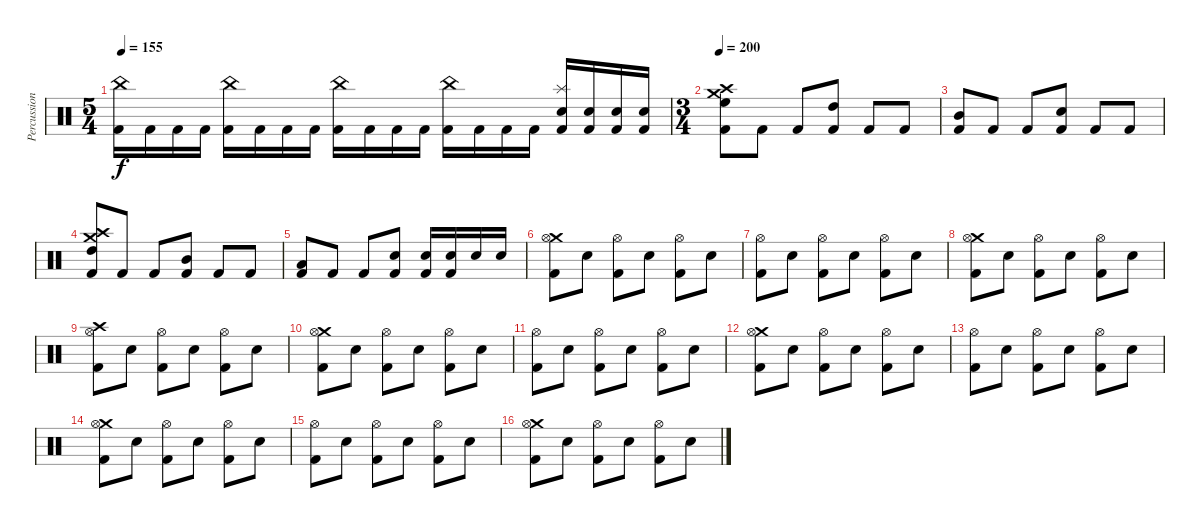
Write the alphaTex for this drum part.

\track ("Percussion" "Percussion") {instrument percussion}
\staff {score}
\articulation defaults
\ts (5 4)
\tempo 155
\clef neutral
\ks c
("China (hit)" "Kick (hit) 2").16{dy f} "Kick (hit) 2".16 "Kick (hit) 2".16 "Kick (hit) 2".16 ("China (hit)" "Kick (hit) 2").16 "Kick (hit) 2".16 "Kick (hit) 2".16 "Kick (hit) 2".16 ("China (hit)" "Kick (hit) 2").16 "Kick (hit) 2".16 "Kick (hit) 2".16 "Kick (hit) 2".16 ("China (hit)" "Kick (hit) 2").16 "Kick (hit) 2".16 "Kick (hit) 2".16 "Kick (hit) 2".16 ("Splash (hit)" "Snare (hit) 2" "Kick (hit) 2").16 ("Snare (hit) 2" "Kick (hit) 2").16 ("Snare (hit) 2" "Kick (hit) 2").16 ("Snare (hit) 2" "Kick (hit) 2").16 |
\ts (3 4)
\tempo 200
("Crash medium (hit)" "Crash high (hit)" "High Floor Tom (hit)" "Kick (hit) 2").8 "Kick (hit) 2".8 "Kick (hit) 2".8 ("High Tom (hit)" "Kick (hit) 2").8 "Kick (hit) 2".8 "Kick (hit) 2".8 |
("Mid Tom (hit)" "Kick (hit) 2").8 "Kick (hit) 2".8 "Kick (hit) 2".8 ("Snare (hit) 2" "Kick (hit) 2").8 "Kick (hit) 2".8 "Kick (hit) 2".8 |
("Crash medium (hit)" "Crash high (hit)" "High Tom (hit)" "Kick (hit) 2").8 "Kick (hit) 2".8 "Kick (hit) 2".8 ("Mid Tom (hit)" "Kick (hit) 2").8 "Kick (hit) 2".8 "Kick (hit) 2".8 |
("Low Tom (hit)" "Kick (hit) 2").8 "Kick (hit) 2".8 "Kick (hit) 2".8 ("Snare (hit) 2" "Kick (hit) 2").8 ("Snare (hit) 2" "Kick (hit) 2").16 ("Snare (hit) 2" "Kick (hit) 2").16 "Snare (hit) 2".16 "Snare (hit) 2".16 |
("Crash medium (hit)" "Hi-Hat (open)" "Kick (hit) 2").8 "Snare (hit) 2".8 ("Hi-Hat (open)" "Kick (hit) 2").8 "Snare (hit) 2".8 ("Hi-Hat (open)" "Kick (hit) 2").8 "Snare (hit) 2".8 |
("Hi-Hat (open)" "Kick (hit) 2").8 "Snare (hit) 2".8 ("Hi-Hat (open)" "Kick (hit) 2").8 "Snare (hit) 2".8 ("Hi-Hat (open)" "Kick (hit) 2").8 "Snare (hit) 2".8 |
("Crash medium (hit)" "Hi-Hat (open)" "Kick (hit) 2").8 "Snare (hit) 2".8 ("Hi-Hat (open)" "Kick (hit) 2").8 "Snare (hit) 2".8 ("Hi-Hat (open)" "Kick (hit) 2").8 "Snare (hit) 2".8 |
("Crash high (hit)" "Hi-Hat (open)" "Kick (hit) 2").8 "Snare (hit) 2".8 ("Hi-Hat (open)" "Kick (hit) 2").8 "Snare (hit) 2".8 ("Hi-Hat (open)" "Kick (hit) 2").8 "Snare (hit) 2".8 |
("Crash medium (hit)" "Hi-Hat (open)" "Kick (hit) 2").8 "Snare (hit) 2".8 ("Hi-Hat (open)" "Kick (hit) 2").8 "Snare (hit) 2".8 ("Hi-Hat (open)" "Kick (hit) 2").8 "Snare (hit) 2".8 |
("Hi-Hat (open)" "Kick (hit) 2").8 "Snare (hit) 2".8 ("Hi-Hat (open)" "Kick (hit) 2").8 "Snare (hit) 2".8 ("Hi-Hat (open)" "Kick (hit) 2").8 "Snare (hit) 2".8 |
("Crash medium (hit)" "Hi-Hat (open)" "Kick (hit) 2").8 "Snare (hit) 2".8 ("Hi-Hat (open)" "Kick (hit) 2").8 "Snare (hit) 2".8 ("Hi-Hat (open)" "Kick (hit) 2").8 "Snare (hit) 2".8 |
("Hi-Hat (open)" "Kick (hit) 2").8 "Snare (hit) 2".8 ("Hi-Hat (open)" "Kick (hit) 2").8 "Snare (hit) 2".8 ("Hi-Hat (open)" "Kick (hit) 2").8 "Snare (hit) 2".8 |
("Crash medium (hit)" "Hi-Hat (open)" "Kick (hit) 2").8 "Snare (hit) 2".8 ("Hi-Hat (open)" "Kick (hit) 2").8 "Snare (hit) 2".8 ("Hi-Hat (open)" "Kick (hit) 2").8 "Snare (hit) 2".8 |
("Hi-Hat (open)" "Kick (hit) 2").8 "Snare (hit) 2".8 ("Hi-Hat (open)" "Kick (hit) 2").8 "Snare (hit) 2".8 ("Hi-Hat (open)" "Kick (hit) 2").8 "Snare (hit) 2".8 |
("Crash medium (hit)" "Hi-Hat (open)" "Kick (hit) 2").8 "Snare (hit) 2".8 ("Hi-Hat (open)" "Kick (hit) 2").8 "Snare (hit) 2".8 ("Hi-Hat (open)" "Kick (hit) 2").8 "Snare (hit) 2".8
